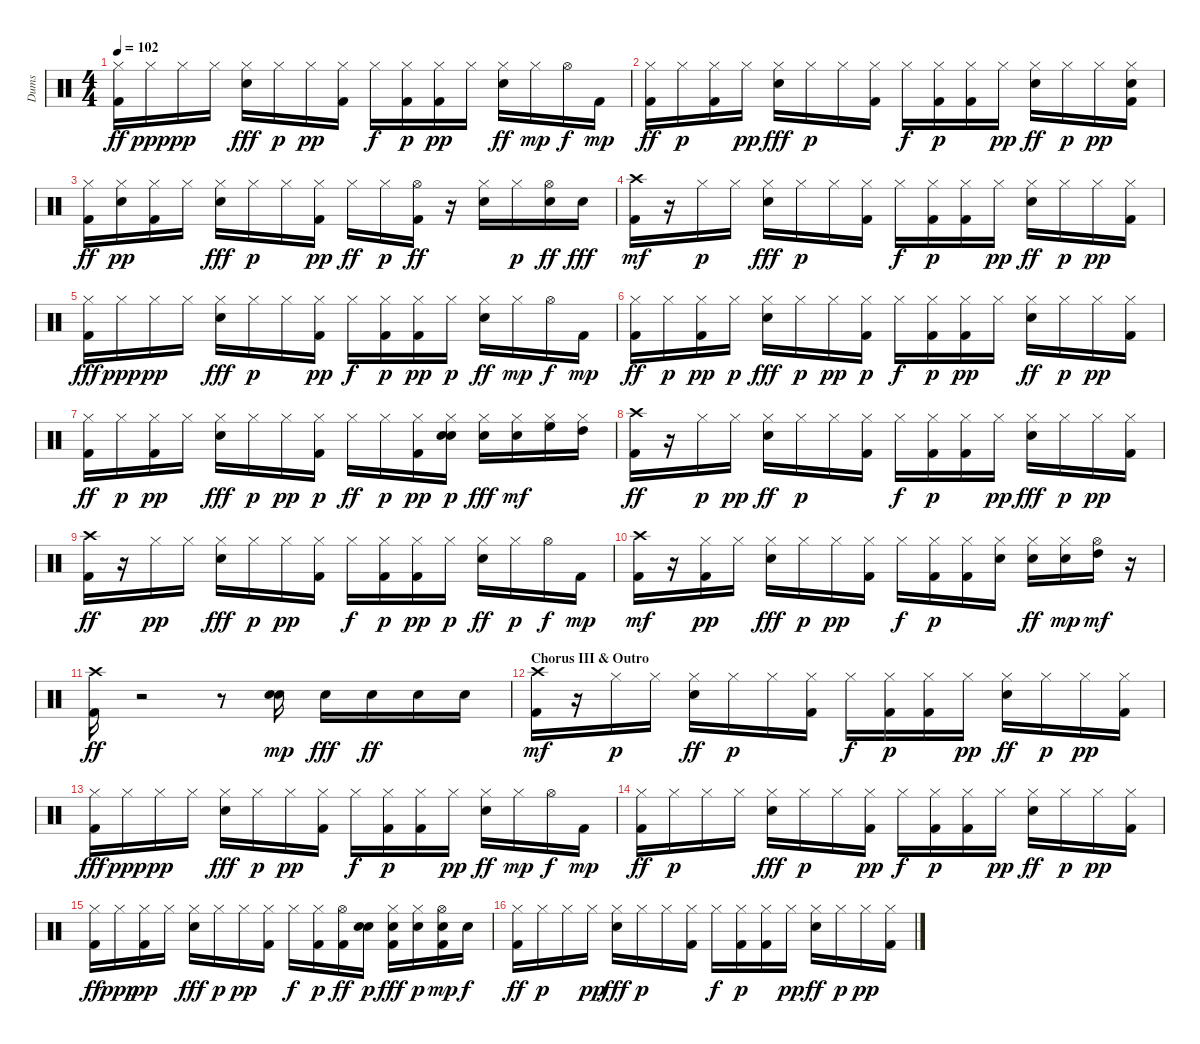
\track ("Dums" "Dums") {instrument percussion}
\staff {score}
\articulation defaults
\ts (4 4)
\tempo 102
\clef neutral
\ks c
("Kick (hit) 2" "Hi-Hat (closed)").16{dy ff} "Hi-Hat (closed)".16{dy ppp} "Hi-Hat (closed)".16{dy pp} "Hi-Hat (closed)".16 ("Electric Snare (hit)" "Hi-Hat (closed)").16{dy fff} "Hi-Hat (closed)".16{dy p} "Hi-Hat (closed)".16{dy pp} ("Kick (hit) 2" "Hi-Hat (closed)").16 "Hi-Hat (closed)".16{dy f} ("Kick (hit) 2" "Hi-Hat (closed)").16{dy p} ("Kick (hit) 2" "Hi-Hat (closed)").16{dy pp} "Hi-Hat (closed)".16 ("Electric Snare (hit)" "Hi-Hat (closed)").16{dy ff} "Hi-Hat (closed)".16{dy mp} "Hi-Hat (open)".16{dy f} "Kick (hit) 2".16{dy mp} |
("Kick (hit) 2" "Hi-Hat (closed)").16{dy ff} "Hi-Hat (closed)".16{dy p} ("Kick (hit) 2" "Hi-Hat (closed)").16 "Hi-Hat (closed)".16{dy pp} ("Electric Snare (hit)" "Hi-Hat (closed)").16{dy fff} "Hi-Hat (closed)".16{dy p} "Hi-Hat (closed)".16 ("Kick (hit) 2" "Hi-Hat (closed)").16 "Hi-Hat (closed)".16{dy f} ("Kick (hit) 2" "Hi-Hat (closed)").16{dy p} ("Kick (hit) 2" "Hi-Hat (closed)").16 "Hi-Hat (closed)".16{dy pp} ("Electric Snare (hit)" "Hi-Hat (closed)").16{dy ff} "Hi-Hat (closed)".16{dy p} "Hi-Hat (closed)".16{dy pp} ("Kick (hit) 2" "Electric Snare (hit)" "Hi-Hat (closed)").16 |
("Kick (hit) 2" "Hi-Hat (closed)").16{dy ff} ("Electric Snare (hit)" "Hi-Hat (closed)").16{dy pp} ("Kick (hit) 2" "Hi-Hat (closed)").16 "Hi-Hat (closed)".16 ("Electric Snare (hit)" "Hi-Hat (closed)").16{dy fff} "Hi-Hat (closed)".16{dy p} "Hi-Hat (closed)".16 ("Kick (hit) 2" "Hi-Hat (closed)").16{dy pp} "Hi-Hat (closed)".16{dy ff} "Hi-Hat (closed)".16{dy p} ("Kick (hit) 2" "Hi-Hat (open)").16{dy ff} r.16 ("Electric Snare (hit)" "Hi-Hat (closed)").16 "Hi-Hat (closed)".16{dy p} ("Electric Snare (hit)" "Hi-Hat (open)").16{dy ff} "Electric Snare (hit)".16{dy fff} |
("Kick (hit) 2" "Crash high (hit)").16{dy mf} r.16 "Hi-Hat (closed)".16{dy p} "Hi-Hat (closed)".16 ("Electric Snare (hit)" "Hi-Hat (closed)").16{dy fff} "Hi-Hat (closed)".16{dy p} "Hi-Hat (closed)".16 ("Kick (hit) 2" "Hi-Hat (closed)").16 "Hi-Hat (closed)".16{dy f} ("Kick (hit) 2" "Hi-Hat (closed)").16{dy p} ("Kick (hit) 2" "Hi-Hat (closed)").16 "Hi-Hat (closed)".16{dy pp} ("Electric Snare (hit)" "Hi-Hat (closed)").16{dy ff} "Hi-Hat (closed)".16{dy p} "Hi-Hat (closed)".16{dy pp} ("Kick (hit) 2" "Hi-Hat (closed)").16 |
("Kick (hit) 2" "Hi-Hat (closed)").16{dy fff} "Hi-Hat (closed)".16{dy ppp} "Hi-Hat (closed)".16{dy pp} "Hi-Hat (closed)".16 ("Electric Snare (hit)" "Hi-Hat (closed)").16{dy fff} "Hi-Hat (closed)".16{dy p} "Hi-Hat (closed)".16 ("Kick (hit) 2" "Hi-Hat (closed)").16{dy pp} "Hi-Hat (closed)".16{dy f} ("Kick (hit) 2" "Hi-Hat (closed)").16{dy p} ("Kick (hit) 2" "Hi-Hat (closed)").16{dy pp} "Hi-Hat (closed)".16{dy p} ("Electric Snare (hit)" "Hi-Hat (closed)").16{dy ff} "Hi-Hat (closed)".16{dy mp} "Hi-Hat (open)".16{dy f} "Kick (hit) 2".16{dy mp} |
("Kick (hit) 2" "Hi-Hat (closed)").16{dy ff} "Hi-Hat (closed)".16{dy p} ("Kick (hit) 2" "Hi-Hat (closed)").16{dy pp} "Hi-Hat (closed)".16{dy p} ("Electric Snare (hit)" "Hi-Hat (closed)").16{dy fff} "Hi-Hat (closed)".16{dy p} "Hi-Hat (closed)".16{dy pp} ("Kick (hit) 2" "Hi-Hat (closed)").16{dy p} "Hi-Hat (closed)".16{dy f} ("Kick (hit) 2" "Hi-Hat (closed)").16{dy p} ("Kick (hit) 2" "Hi-Hat (closed)").16{dy pp} "Hi-Hat (closed)".16 ("Electric Snare (hit)" "Hi-Hat (closed)").16{dy ff} "Hi-Hat (closed)".16{dy p} "Hi-Hat (closed)".16{dy pp} ("Kick (hit) 2" "Hi-Hat (closed)").16 |
("Kick (hit) 2" "Hi-Hat (closed)").16{dy ff} "Hi-Hat (closed)".16{dy p} ("Kick (hit) 2" "Hi-Hat (closed)").16{dy pp} "Hi-Hat (closed)".16 ("Electric Snare (hit)" "Hi-Hat (closed)").16{dy fff} "Hi-Hat (closed)".16{dy p} "Hi-Hat (closed)".16{dy pp} ("Kick (hit) 2" "Hi-Hat (closed)").16{dy p} "Hi-Hat (closed)".16{dy ff} "Hi-Hat (closed)".16{dy p} ("Kick (hit) 2" "Hi-Hat (closed)").16{dy pp} ("Electric Snare (hit)" "Hi-Hat (closed)" "Electric Snare (hit)").16{dy p} ("Electric Snare (hit)" "Hi-Hat (closed)").16{dy fff} ("Electric Snare (hit)" "Hi-Hat (closed)").16{dy mf} ("Hi-Hat (closed)" "High Floor Tom (hit)").16 ("Hi-Hat (closed)" "High Tom (hit)").16 |
("Kick (hit) 2" "Crash high (hit)").16{dy ff} r.16 "Hi-Hat (closed)".16{dy p} "Hi-Hat (closed)".16{dy pp} ("Electric Snare (hit)" "Hi-Hat (closed)").16{dy ff} "Hi-Hat (closed)".16{dy p} "Hi-Hat (closed)".16 ("Kick (hit) 2" "Hi-Hat (closed)").16 "Hi-Hat (closed)".16{dy f} ("Kick (hit) 2" "Hi-Hat (closed)").16{dy p} ("Kick (hit) 2" "Hi-Hat (closed)").16 "Hi-Hat (closed)".16{dy pp} ("Electric Snare (hit)" "Hi-Hat (closed)").16{dy fff} "Hi-Hat (closed)".16{dy p} "Hi-Hat (closed)".16{dy pp} ("Kick (hit) 2" "Hi-Hat (closed)").16 |
("Kick (hit) 2" "Crash high (hit)").16{dy ff} r.16 "Hi-Hat (closed)".16{dy pp} "Hi-Hat (closed)".16 ("Electric Snare (hit)" "Hi-Hat (closed)").16{dy fff} "Hi-Hat (closed)".16{dy p} "Hi-Hat (closed)".16{dy pp} ("Kick (hit) 2" "Hi-Hat (closed)").16 "Hi-Hat (closed)".16{dy f} ("Kick (hit) 2" "Hi-Hat (closed)").16{dy p} ("Kick (hit) 2" "Hi-Hat (closed)").16{dy pp} "Hi-Hat (closed)".16{dy p} ("Electric Snare (hit)" "Hi-Hat (closed)").16{dy ff} "Hi-Hat (closed)".16{dy p} "Hi-Hat (open)".16{dy f} "Kick (hit) 2".16{dy mp} |
("Kick (hit) 2" "Crash high (hit)").16{dy mf} r.16 ("Kick (hit) 2" "Hi-Hat (closed)").16{dy pp} "Hi-Hat (closed)".16 ("Electric Snare (hit)" "Hi-Hat (closed)").16{dy fff} "Hi-Hat (closed)".16{dy p} "Hi-Hat (closed)".16{dy pp} ("Kick (hit) 2" "Hi-Hat (closed)").16 "Hi-Hat (closed)".16{dy f} ("Kick (hit) 2" "Hi-Hat (closed)").16{dy p} ("Kick (hit) 2" "Hi-Hat (closed)").16 ("Electric Snare (hit)" "Hi-Hat (closed)").16 ("Electric Snare (hit)" "Hi-Hat (closed)").16{dy ff} ("Electric Snare (hit)" "Hi-Hat (closed)").16{dy mp} ("Hi-Hat (open)" "High Tom (hit)").16{dy mf} r.16 |
("Kick (hit) 2" "Crash high (hit)").16{dy ff} r.2 r.8 ("Electric Snare (hit)" "Electric Snare (hit)").16{dy mp} "Electric Snare (hit)".16{dy fff} "Electric Snare (hit)".16{dy ff} "Electric Snare (hit)".16 "Electric Snare (hit)".16 |
\section ("" "Chorus III & Outro")
("Kick (hit) 2" "Crash high (hit)").16{dy mf} r.16 "Hi-Hat (closed)".16{dy p} "Hi-Hat (closed)".16 ("Electric Snare (hit)" "Hi-Hat (closed)").16{dy ff} "Hi-Hat (closed)".16{dy p} "Hi-Hat (closed)".16 ("Kick (hit) 2" "Hi-Hat (closed)").16 "Hi-Hat (closed)".16{dy f} ("Kick (hit) 2" "Hi-Hat (closed)").16{dy p} ("Kick (hit) 2" "Hi-Hat (closed)").16 "Hi-Hat (closed)".16{dy pp} ("Electric Snare (hit)" "Hi-Hat (closed)").16{dy ff} "Hi-Hat (closed)".16{dy p} "Hi-Hat (closed)".16{dy pp} ("Kick (hit) 2" "Hi-Hat (closed)").16 |
("Kick (hit) 2" "Hi-Hat (closed)").16{dy fff} "Hi-Hat (closed)".16{dy ppp} "Hi-Hat (closed)".16{dy pp} "Hi-Hat (closed)".16 ("Electric Snare (hit)" "Hi-Hat (closed)").16{dy fff} "Hi-Hat (closed)".16{dy p} "Hi-Hat (closed)".16{dy pp} ("Kick (hit) 2" "Hi-Hat (closed)").16 "Hi-Hat (closed)".16{dy f} ("Kick (hit) 2" "Hi-Hat (closed)").16{dy p} ("Kick (hit) 2" "Hi-Hat (closed)").16 "Hi-Hat (closed)".16{dy pp} ("Electric Snare (hit)" "Hi-Hat (closed)").16{dy ff} "Hi-Hat (closed)".16{dy mp} "Hi-Hat (open)".16{dy f} "Kick (hit) 2".16{dy mp} |
("Kick (hit) 2" "Hi-Hat (closed)").16{dy ff} "Hi-Hat (closed)".16{dy p} "Hi-Hat (closed)".16 "Hi-Hat (closed)".16 ("Electric Snare (hit)" "Hi-Hat (closed)").16{dy fff} "Hi-Hat (closed)".16{dy p} "Hi-Hat (closed)".16 ("Kick (hit) 2" "Hi-Hat (closed)").16{dy pp} "Hi-Hat (closed)".16{dy f} ("Kick (hit) 2" "Hi-Hat (closed)").16{dy p} ("Kick (hit) 2" "Hi-Hat (closed)").16 "Hi-Hat (closed)".16{dy pp} ("Electric Snare (hit)" "Hi-Hat (closed)").16{dy ff} "Hi-Hat (closed)".16{dy p} "Hi-Hat (closed)".16{dy pp} ("Kick (hit) 2" "Hi-Hat (closed)").16 |
("Kick (hit) 2" "Hi-Hat (closed)").16{dy ff} "Hi-Hat (closed)".16{dy ppp} ("Kick (hit) 2" "Hi-Hat (closed)").16{dy pp} "Hi-Hat (closed)".16 ("Electric Snare (hit)" "Hi-Hat (closed)").16{dy fff} "Hi-Hat (closed)".16{dy p} "Hi-Hat (closed)".16{dy pp} ("Kick (hit) 2" "Hi-Hat (closed)").16 "Hi-Hat (closed)".16{dy f} ("Kick (hit) 2" "Hi-Hat (closed)").16{dy p} ("Kick (hit) 2" "Hi-Hat (open)").16{dy ff} ("Electric Snare (hit)" "Electric Snare (hit)").16{dy p} ("Kick (hit) 2" "Electric Snare (hit)" "Hi-Hat (closed)").16{dy fff} ("Electric Snare (hit)" "Hi-Hat (closed)").16{dy p} ("Kick (hit) 2" "Electric Snare (hit)" "Hi-Hat (open)").16{dy mp} "Electric Snare (hit)".16{dy f} |
("Kick (hit) 2" "Hi-Hat (closed)").16{dy ff} "Hi-Hat (closed)".16{dy p} "Hi-Hat (closed)".16 "Hi-Hat (closed)".16{dy pp} ("Electric Snare (hit)" "Hi-Hat (closed)").16{dy fff} "Hi-Hat (closed)".16{dy p} "Hi-Hat (closed)".16 ("Kick (hit) 2" "Hi-Hat (closed)").16 "Hi-Hat (closed)".16{dy f} ("Kick (hit) 2" "Hi-Hat (closed)").16{dy p} ("Kick (hit) 2" "Hi-Hat (closed)").16 "Hi-Hat (closed)".16{dy pp} ("Electric Snare (hit)" "Hi-Hat (closed)").16{dy ff} "Hi-Hat (closed)".16{dy p} "Hi-Hat (closed)".16{dy pp} ("Kick (hit) 2" "Hi-Hat (closed)").16
